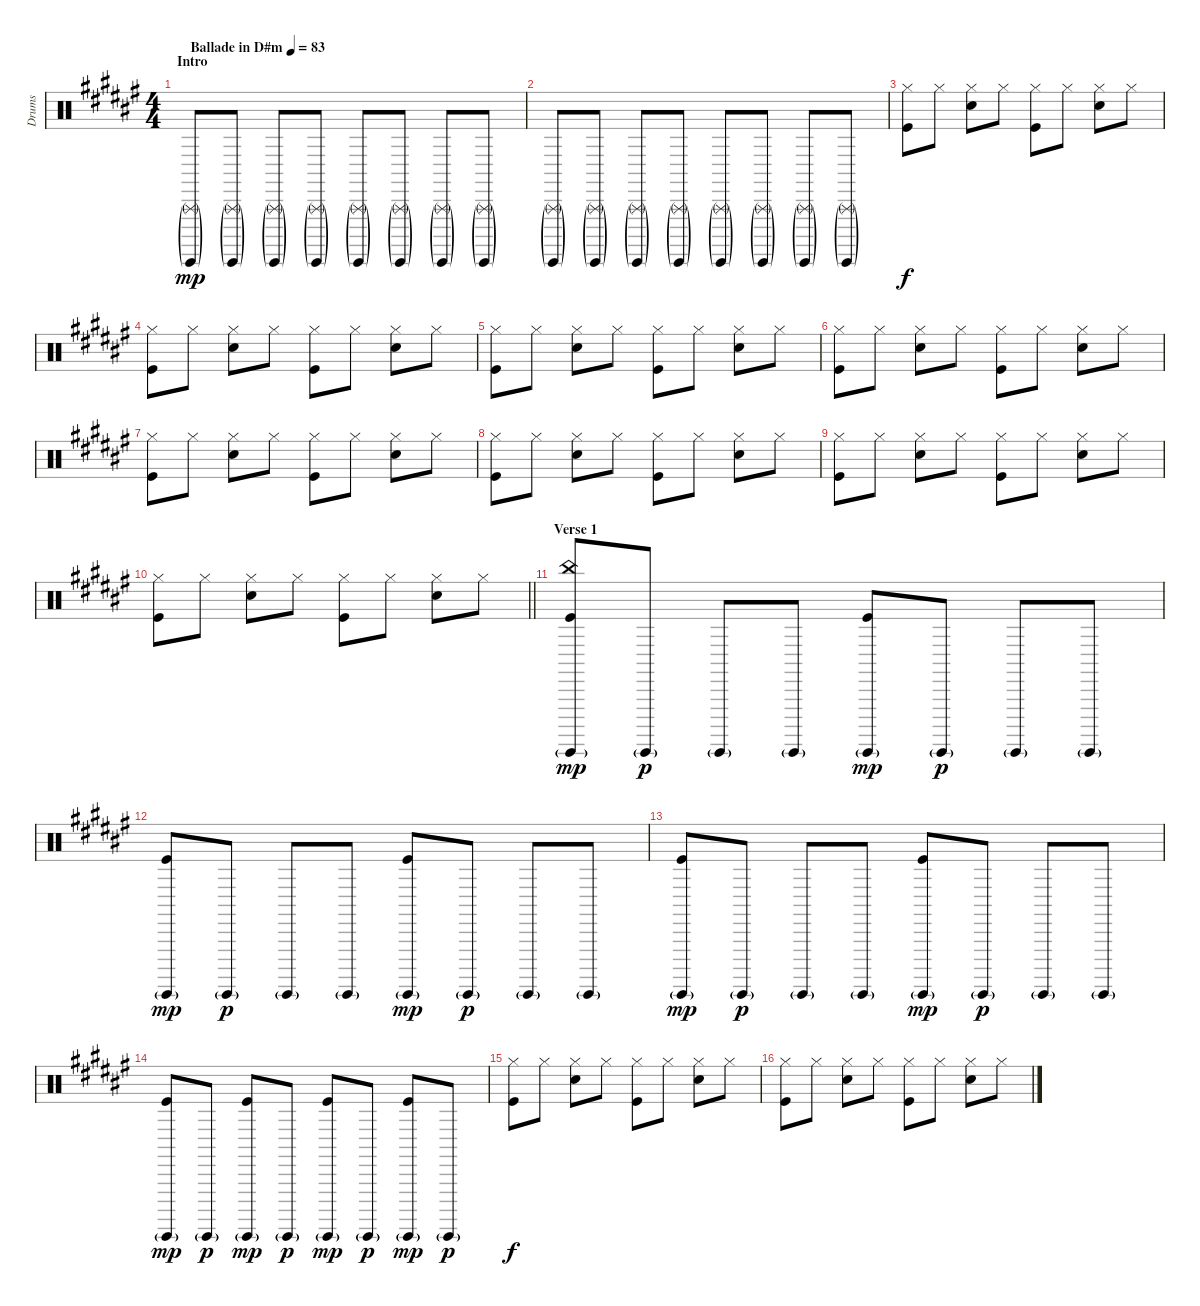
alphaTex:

\track ("Drums" "Drums") {instrument percussion}
\staff {score}
\articulation defaults
\ts (4 4)
\section ("" "Intro")
\tempo (83 "Ballade in D#m")
\clef neutral
\ks d#minor
("Triangle (rnute)"{g} "Guiro (hit)"{g}).8{dy mp} ("Triangle (rnute)"{g} "Guiro (hit)"{g}).8 ("Triangle (rnute)"{g} "Guiro (hit)"{g}).8 ("Triangle (rnute)"{g} "Guiro (hit)"{g}).8 ("Triangle (rnute)"{g} "Guiro (hit)"{g}).8 ("Triangle (rnute)"{g} "Guiro (hit)"{g}).8 ("Triangle (rnute)"{g} "Guiro (hit)"{g}).8 ("Triangle (rnute)"{g} "Guiro (hit)"{g}).8 |
("Triangle (rnute)"{g} "Guiro (hit)"{g}).8 ("Triangle (rnute)"{g} "Guiro (hit)"{g}).8 ("Triangle (rnute)"{g} "Guiro (hit)"{g}).8 ("Triangle (rnute)"{g} "Guiro (hit)"{g}).8 ("Triangle (rnute)"{g} "Guiro (hit)"{g}).8 ("Triangle (rnute)"{g} "Guiro (hit)"{g}).8 ("Triangle (rnute)"{g} "Guiro (hit)"{g}).8 ("Triangle (rnute)"{g} "Guiro (hit)"{g}).8 |
("Hi-Hat (closed)" "Kick (hit)").8{dy f} "Hi-Hat (closed)".8 ("Hi-Hat (closed)" "Snare (hit) 2").8 "Hi-Hat (closed)".8 ("Hi-Hat (closed)" "Kick (hit)").8 "Hi-Hat (closed)".8 ("Hi-Hat (closed)" "Snare (hit) 2").8 "Hi-Hat (closed)".8 |
("Hi-Hat (closed)" "Kick (hit)").8 "Hi-Hat (closed)".8 ("Hi-Hat (closed)" "Snare (hit) 2").8 "Hi-Hat (closed)".8 ("Hi-Hat (closed)" "Kick (hit)").8 "Hi-Hat (closed)".8 ("Hi-Hat (closed)" "Snare (hit) 2").8 "Hi-Hat (closed)".8 |
("Hi-Hat (closed)" "Kick (hit)").8 "Hi-Hat (closed)".8 ("Hi-Hat (closed)" "Snare (hit) 2").8 "Hi-Hat (closed)".8 ("Hi-Hat (closed)" "Kick (hit)").8 "Hi-Hat (closed)".8 ("Hi-Hat (closed)" "Snare (hit) 2").8 "Hi-Hat (closed)".8 |
("Hi-Hat (closed)" "Kick (hit)").8 "Hi-Hat (closed)".8 ("Hi-Hat (closed)" "Snare (hit) 2").8 "Hi-Hat (closed)".8 ("Hi-Hat (closed)" "Kick (hit)").8 "Hi-Hat (closed)".8 ("Hi-Hat (closed)" "Snare (hit) 2").8 "Hi-Hat (closed)".8 |
("Hi-Hat (closed)" "Kick (hit)").8 "Hi-Hat (closed)".8 ("Hi-Hat (closed)" "Snare (hit) 2").8 "Hi-Hat (closed)".8 ("Hi-Hat (closed)" "Kick (hit)").8 "Hi-Hat (closed)".8 ("Hi-Hat (closed)" "Snare (hit) 2").8 "Hi-Hat (closed)".8 |
("Hi-Hat (closed)" "Kick (hit)").8 "Hi-Hat (closed)".8 ("Hi-Hat (closed)" "Snare (hit) 2").8 "Hi-Hat (closed)".8 ("Hi-Hat (closed)" "Kick (hit)").8 "Hi-Hat (closed)".8 ("Hi-Hat (closed)" "Snare (hit) 2").8 "Hi-Hat (closed)".8 |
("Hi-Hat (closed)" "Kick (hit)").8 "Hi-Hat (closed)".8 ("Hi-Hat (closed)" "Snare (hit) 2").8 "Hi-Hat (closed)".8 ("Hi-Hat (closed)" "Kick (hit)").8 "Hi-Hat (closed)".8 ("Hi-Hat (closed)" "Snare (hit) 2").8 "Hi-Hat (closed)".8 |
\barLineRight lightlight
("Hi-Hat (closed)" "Kick (hit)").8 "Hi-Hat (closed)".8 ("Hi-Hat (closed)" "Snare (hit) 2").8 "Hi-Hat (closed)".8 ("Hi-Hat (closed)" "Kick (hit)").8 "Hi-Hat (closed)".8 ("Hi-Hat (closed)" "Snare (hit) 2").8 "Hi-Hat (closed)".8 |
\section ("" "Verse 1")
("China (hit)" "Guiro (hit)"{g} "Kick (hit)").8{dy mp} "Guiro (hit)"{g}.8{dy p} "Guiro (hit)"{g}.8 "Guiro (hit)"{g}.8 ("Guiro (hit)"{g} "Kick (hit)").8{dy mp} "Guiro (hit)"{g}.8{dy p} "Guiro (hit)"{g}.8 "Guiro (hit)"{g}.8 |
("Guiro (hit)"{g} "Kick (hit)").8{dy mp} "Guiro (hit)"{g}.8{dy p} "Guiro (hit)"{g}.8 "Guiro (hit)"{g}.8 ("Guiro (hit)"{g} "Kick (hit)").8{dy mp} "Guiro (hit)"{g}.8{dy p} "Guiro (hit)"{g}.8 "Guiro (hit)"{g}.8 |
("Guiro (hit)"{g} "Kick (hit)").8{dy mp} "Guiro (hit)"{g}.8{dy p} "Guiro (hit)"{g}.8 "Guiro (hit)"{g}.8 ("Guiro (hit)"{g} "Kick (hit)").8{dy mp} "Guiro (hit)"{g}.8{dy p} "Guiro (hit)"{g}.8 "Guiro (hit)"{g}.8 |
("Guiro (hit)"{g} "Kick (hit)").8{dy mp} "Guiro (hit)"{g}.8{dy p} ("Guiro (hit)"{g} "Kick (hit)").8{dy mp} "Guiro (hit)"{g}.8{dy p} ("Guiro (hit)"{g} "Kick (hit)").8{dy mp} "Guiro (hit)"{g}.8{dy p} ("Guiro (hit)"{g} "Kick (hit)").8{dy mp} "Guiro (hit)"{g}.8{dy p} |
("Hi-Hat (closed)" "Kick (hit)").8{dy f} "Hi-Hat (closed)".8 ("Hi-Hat (closed)" "Snare (hit) 2").8 "Hi-Hat (closed)".8 ("Hi-Hat (closed)" "Kick (hit)").8 "Hi-Hat (closed)".8 ("Hi-Hat (closed)" "Snare (hit) 2").8 "Hi-Hat (closed)".8 |
("Hi-Hat (closed)" "Kick (hit)").8 "Hi-Hat (closed)".8 ("Hi-Hat (closed)" "Snare (hit) 2").8 "Hi-Hat (closed)".8 ("Hi-Hat (closed)" "Kick (hit)").8 "Hi-Hat (closed)".8 ("Hi-Hat (closed)" "Snare (hit) 2").8 "Hi-Hat (closed)".8
